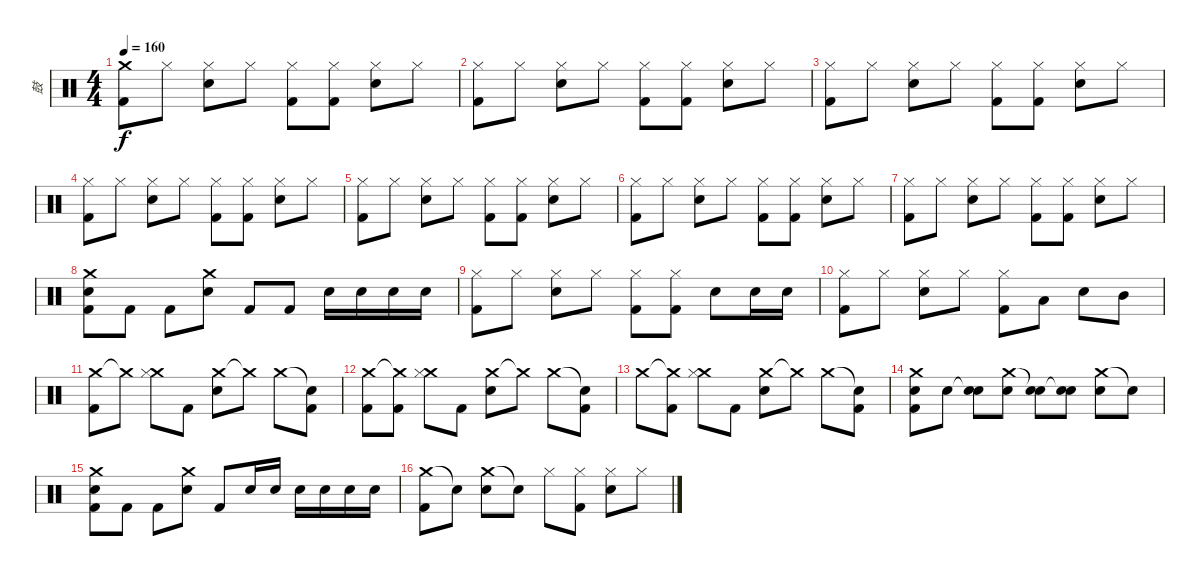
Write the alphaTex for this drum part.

\track ("鼓" "鼓") {instrument percussion}
\staff {score}
\articulation defaults
\ts (4 4)
\tempo 160
\clef neutral
\ks c
("Crash medium (hit)" "Kick (hit) 2").8{dy f} "Hi-Hat (closed)".8 ("Hi-Hat (closed)" "Electric Snare (hit)").8 "Hi-Hat (closed)".8 ("Hi-Hat (closed)" "Kick (hit) 2").8 ("Hi-Hat (closed)" "Kick (hit) 2").8 ("Hi-Hat (closed)" "Electric Snare (hit)").8 "Hi-Hat (closed)".8 |
("Hi-Hat (closed)" "Kick (hit) 2").8 "Hi-Hat (closed)".8 ("Hi-Hat (closed)" "Electric Snare (hit)").8 "Hi-Hat (closed)".8 ("Hi-Hat (closed)" "Kick (hit) 2").8 ("Hi-Hat (closed)" "Kick (hit) 2").8 ("Hi-Hat (closed)" "Electric Snare (hit)").8 "Hi-Hat (closed)".8 |
("Hi-Hat (closed)" "Kick (hit) 2").8 "Hi-Hat (closed)".8 ("Hi-Hat (closed)" "Electric Snare (hit)").8 "Hi-Hat (closed)".8 ("Hi-Hat (closed)" "Kick (hit) 2").8 ("Hi-Hat (closed)" "Kick (hit) 2").8 ("Hi-Hat (closed)" "Electric Snare (hit)").8 "Hi-Hat (closed)".8 |
("Hi-Hat (closed)" "Kick (hit) 2").8 "Hi-Hat (closed)".8 ("Hi-Hat (closed)" "Electric Snare (hit)").8 "Hi-Hat (closed)".8 ("Hi-Hat (closed)" "Kick (hit) 2").8 ("Hi-Hat (closed)" "Kick (hit) 2").8 ("Hi-Hat (closed)" "Electric Snare (hit)").8 "Hi-Hat (closed)".8 |
("Hi-Hat (closed)" "Kick (hit) 2").8 "Hi-Hat (closed)".8 ("Hi-Hat (closed)" "Electric Snare (hit)").8 "Hi-Hat (closed)".8 ("Hi-Hat (closed)" "Kick (hit) 2").8 ("Hi-Hat (closed)" "Kick (hit) 2").8 ("Hi-Hat (closed)" "Electric Snare (hit)").8 "Hi-Hat (closed)".8 |
("Hi-Hat (closed)" "Kick (hit) 2").8 "Hi-Hat (closed)".8 ("Hi-Hat (closed)" "Electric Snare (hit)").8 "Hi-Hat (closed)".8 ("Hi-Hat (closed)" "Kick (hit) 2").8 ("Hi-Hat (closed)" "Kick (hit) 2").8 ("Hi-Hat (closed)" "Electric Snare (hit)").8 "Hi-Hat (closed)".8 |
("Hi-Hat (closed)" "Kick (hit) 2").8 "Hi-Hat (closed)".8 ("Hi-Hat (closed)" "Electric Snare (hit)").8 "Hi-Hat (closed)".8 ("Hi-Hat (closed)" "Kick (hit) 2").8 ("Hi-Hat (closed)" "Kick (hit) 2").8 ("Hi-Hat (closed)" "Electric Snare (hit)").8 "Hi-Hat (closed)".8 |
("Crash medium (hit)" "Electric Snare (hit)" "Kick (hit) 2").8 "Kick (hit) 2".8 "Kick (hit) 2".8 ("Crash medium (hit)" "Electric Snare (hit)").8 "Kick (hit) 2".8 "Kick (hit) 2".8 "Electric Snare (hit)".16 "Electric Snare (hit)".16 "Electric Snare (hit)".16 "Electric Snare (hit)".16 |
("Hi-Hat (closed)" "Kick (hit) 2").8 "Hi-Hat (closed)".8 ("Hi-Hat (closed)" "Electric Snare (hit)").8 "Hi-Hat (closed)".8 ("Hi-Hat (closed)" "Kick (hit) 2").8 ("Hi-Hat (closed)" "Kick (hit) 2").8 "Electric Snare (hit)".8 "Electric Snare (hit)".16 "Electric Snare (hit)".16 |
("Hi-Hat (closed)" "Kick (hit) 2").8 "Hi-Hat (closed)".8 ("Hi-Hat (closed)" "Electric Snare (hit)").8 "Hi-Hat (closed)".8 ("Hi-Hat (closed)" "Kick (hit) 2").8 "Low Tom (hit)".8 "Electric Snare (hit)".8 "Mid Tom (hit)".8 |
("Crash medium (hit)" "Kick (hit) 2").8 "Crash medium (hit)"{t}.8 ("Crash medium (hit)" "Hi-Hat (closed)").8 "Kick (hit) 2".8 ("Crash medium (hit)" "Electric Snare (hit)").8 "Crash medium (hit)"{t}.8 "Crash medium (hit)".8 ("Snare (hit)"{t} "Kick (hit) 2").8 |
("Crash medium (hit)" "Kick (hit) 2").8 ("Crash medium (hit)"{t} "Kick (hit) 2").8 ("Crash medium (hit)" "Hi-Hat (closed)").8 "Kick (hit) 2".8 ("Crash medium (hit)" "Electric Snare (hit)").8 "Crash medium (hit)"{t}.8 "Crash medium (hit)".8 ("Snare (hit)"{t} "Kick (hit) 2").8 |
"Crash medium (hit)".8 ("Crash medium (hit)"{t} "Kick (hit) 2").8 ("Crash medium (hit)" "Hi-Hat (closed)").8 "Kick (hit) 2".8 ("Crash medium (hit)" "Electric Snare (hit)").8 "Crash medium (hit)"{t}.8 "Crash medium (hit)".8 ("Snare (hit)"{t} "Kick (hit) 2").8 |
("Crash medium (hit)" "Electric Snare (hit)" "Kick (hit) 2").8 "Electric Snare (hit)".8 ("Snare (hit)"{t} "Electric Snare (hit)").8 ("Crash medium (hit)" "Electric Snare (hit)").8 ("Snare (hit)"{t} "Electric Snare (hit)").8 ("Snare (hit)"{t} "Electric Snare (hit)").8 ("Crash medium (hit)" "Electric Snare (hit)").8 "Snare (hit)"{t}.8 |
("Crash medium (hit)" "Electric Snare (hit)" "Kick (hit) 2").8 "Kick (hit) 2".8 "Kick (hit) 2".8 ("Crash medium (hit)" "Electric Snare (hit)").8 "Kick (hit) 2".8 "Electric Snare (hit)".16 "Electric Snare (hit)".16 "Electric Snare (hit)".16 "Electric Snare (hit)".16 "Electric Snare (hit)".16 "Electric Snare (hit)".16 |
("Crash medium (hit)" "Kick (hit) 2").8 "Snare (hit)"{t}.8 ("Crash medium (hit)" "Electric Snare (hit)").8 "Snare (hit)"{t}.8 "Hi-Hat (closed)".8 ("Hi-Hat (closed)" "Kick (hit) 2").8 ("Hi-Hat (closed)" "Electric Snare (hit)").8 "Hi-Hat (closed)".8
